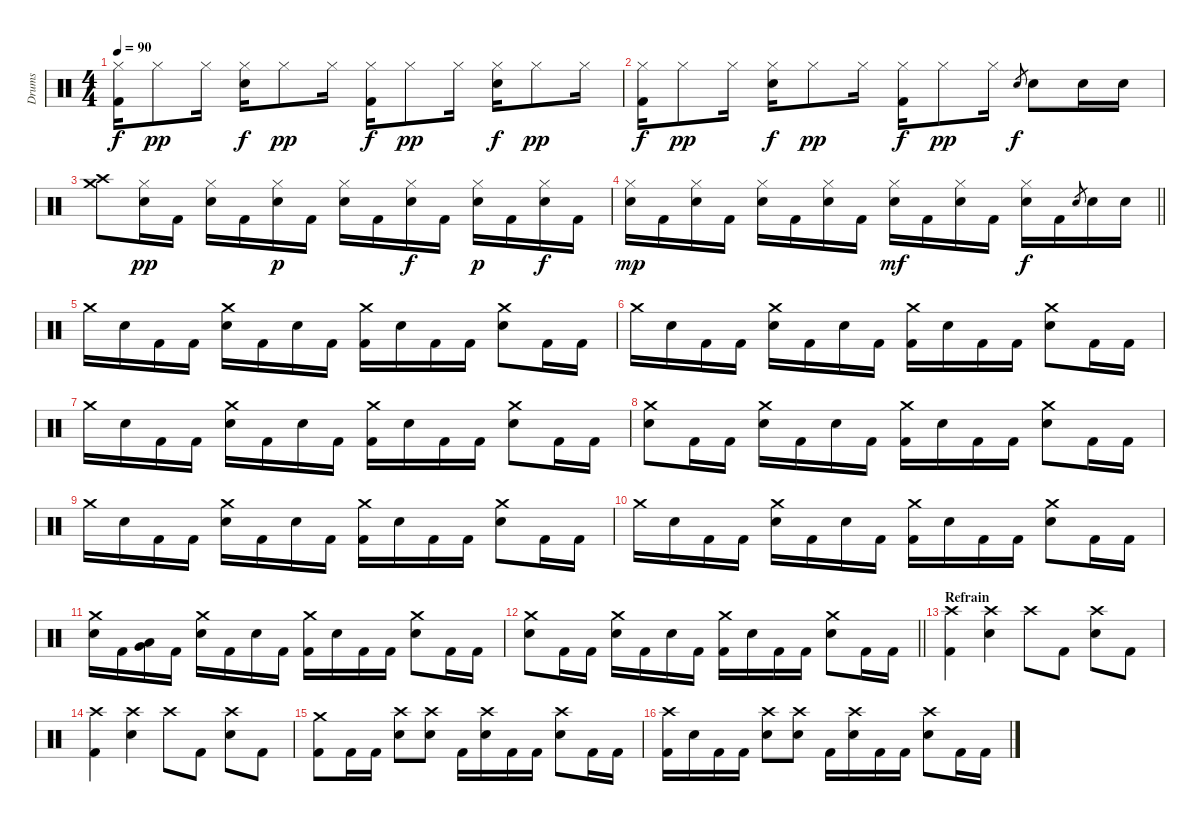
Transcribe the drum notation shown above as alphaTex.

\track ("Drums" "Drums") {instrument percussion}
\staff {score}
\articulation defaults
\ts (4 4)
\tempo 90
\clef neutral
\ks c
("Hi-Hat (closed)" "Kick (hit) 2").16{dy f} "Hi-Hat (closed)".8{dy pp} "Hi-Hat (closed)".16 ("Snare (hit) 2" "Hi-Hat (closed)").16{dy f} "Hi-Hat (closed)".8{dy pp} "Hi-Hat (closed)".16 ("Hi-Hat (closed)" "Kick (hit) 2").16{dy f} "Hi-Hat (closed)".8{dy pp} "Hi-Hat (closed)".16 ("Snare (hit) 2" "Hi-Hat (closed)").16{dy f} "Hi-Hat (closed)".8{dy pp} "Hi-Hat (closed)".16 |
("Hi-Hat (closed)" "Kick (hit) 2").16{dy f} "Hi-Hat (closed)".8{dy pp} "Hi-Hat (closed)".16 ("Snare (hit) 2" "Hi-Hat (closed)").16{dy f} "Hi-Hat (closed)".8{dy pp} "Hi-Hat (closed)".16 ("Hi-Hat (closed)" "Kick (hit) 2").16{dy f} "Hi-Hat (closed)".8{dy pp} "Hi-Hat (closed)".16 "Snare (hit) 2".8{gr dy f} "Snare (hit) 2".8 "Snare (hit) 2".16 "Snare (hit) 2".16 |
("Crash high (hit)" "Crash medium (hit)").8 ("Snare (hit) 2" "Hi-Hat (closed)").16{dy pp} "Kick (hit) 2".16 ("Snare (hit) 2" "Hi-Hat (closed)").16 "Kick (hit) 2".16 ("Snare (hit) 2" "Hi-Hat (closed)").16{dy p} "Kick (hit) 2".16 ("Snare (hit) 2" "Hi-Hat (closed)").16 "Kick (hit) 2".16 ("Snare (hit) 2" "Hi-Hat (closed)").16{dy f} "Kick (hit) 2".16 ("Snare (hit) 2" "Hi-Hat (closed)").16{dy p} "Kick (hit) 2".16 ("Snare (hit) 2" "Hi-Hat (closed)").16{dy f} "Kick (hit) 2".16 |
\barLineRight lightlight
("Snare (hit) 2" "Hi-Hat (closed)").16{dy mp} "Kick (hit) 2".16 ("Snare (hit) 2" "Hi-Hat (closed)").16 "Kick (hit) 2".16 ("Snare (hit) 2" "Hi-Hat (closed)").16 "Kick (hit) 2".16 ("Snare (hit) 2" "Hi-Hat (closed)").16 "Kick (hit) 2".16 ("Snare (hit) 2" "Hi-Hat (closed)").16{dy mf} "Kick (hit) 2".16 ("Snare (hit) 2" "Hi-Hat (closed)").16 "Kick (hit) 2".16 ("Snare (hit) 2" "Hi-Hat (closed)").16{dy f} "Kick (hit) 2".16 "Snare (hit) 2".8{gr} "Snare (hit) 2".16 "Snare (hit) 2".16 |
\section ("" "")
"Crash medium (hit)".16 "Snare (hit) 2".16 "Kick (hit) 2".16 "Kick (hit) 2".16 ("Snare (hit) 2" "Crash medium (hit)").16 "Kick (hit) 2".16 "Snare (hit) 2".16 "Kick (hit) 2".16 ("Crash medium (hit)" "Kick (hit) 2").16 "Snare (hit) 2".16 "Kick (hit) 2".16 "Kick (hit) 2".16 ("Snare (hit) 2" "Crash medium (hit)").8 "Kick (hit) 2".16 "Kick (hit) 2".16 |
"Crash medium (hit)".16 "Snare (hit) 2".16 "Kick (hit) 2".16 "Kick (hit) 2".16 ("Snare (hit) 2" "Crash medium (hit)").16 "Kick (hit) 2".16 "Snare (hit) 2".16 "Kick (hit) 2".16 ("Crash medium (hit)" "Kick (hit) 2").16 "Snare (hit) 2".16 "Kick (hit) 2".16 "Kick (hit) 2".16 ("Snare (hit) 2" "Crash medium (hit)").8 "Kick (hit) 2".16 "Kick (hit) 2".16 |
"Crash medium (hit)".16 "Snare (hit) 2".16 "Kick (hit) 2".16 "Kick (hit) 2".16 ("Snare (hit) 2" "Crash medium (hit)").16 "Kick (hit) 2".16 "Snare (hit) 2".16 "Kick (hit) 2".16 ("Crash medium (hit)" "Kick (hit) 2").16 "Snare (hit) 2".16 "Kick (hit) 2".16 "Kick (hit) 2".16 ("Snare (hit) 2" "Crash medium (hit)").8 "Kick (hit) 2".16 "Kick (hit) 2".16 |
("Snare (hit) 2" "Crash medium (hit)").8 "Kick (hit) 2".16 "Kick (hit) 2".16 ("Snare (hit) 2" "Crash medium (hit)").16 "Kick (hit) 2".16 "Snare (hit) 2".16 "Kick (hit) 2".16 ("Crash medium (hit)" "Kick (hit) 2").16 "Snare (hit) 2".16 "Kick (hit) 2".16 "Kick (hit) 2".16 ("Snare (hit) 2" "Crash medium (hit)").8 "Kick (hit) 2".16 "Kick (hit) 2".16 |
"Crash medium (hit)".16 "Snare (hit) 2".16 "Kick (hit) 2".16 "Kick (hit) 2".16 ("Snare (hit) 2" "Crash medium (hit)").16 "Kick (hit) 2".16 "Snare (hit) 2".16 "Kick (hit) 2".16 ("Crash medium (hit)" "Kick (hit) 2").16 "Snare (hit) 2".16 "Kick (hit) 2".16 "Kick (hit) 2".16 ("Snare (hit) 2" "Crash medium (hit)").8 "Kick (hit) 2".16 "Kick (hit) 2".16 |
"Crash medium (hit)".16 "Snare (hit) 2".16 "Kick (hit) 2".16 "Kick (hit) 2".16 ("Snare (hit) 2" "Crash medium (hit)").16 "Kick (hit) 2".16 "Snare (hit) 2".16 "Kick (hit) 2".16 ("Crash medium (hit)" "Kick (hit) 2").16 "Snare (hit) 2".16 "Kick (hit) 2".16 "Kick (hit) 2".16 ("Snare (hit) 2" "Crash medium (hit)").8 "Kick (hit) 2".16 "Kick (hit) 2".16 |
("Snare (hit) 2" "Crash medium (hit)").16 "Kick (hit) 2".16 ("Low Tom (hit)" "Very Low Tom (hit)").16 "Kick (hit) 2".16 ("Snare (hit) 2" "Crash medium (hit)").16 "Kick (hit) 2".16 "Snare (hit) 2".16 "Kick (hit) 2".16 ("Crash medium (hit)" "Kick (hit) 2").16 "Snare (hit) 2".16 "Kick (hit) 2".16 "Kick (hit) 2".16 ("Snare (hit) 2" "Crash medium (hit)").8 "Kick (hit) 2".16 "Kick (hit) 2".16 |
\barLineRight lightlight
("Snare (hit) 2" "Crash medium (hit)").8 "Kick (hit) 2".16 "Kick (hit) 2".16 ("Snare (hit) 2" "Crash medium (hit)").16 "Kick (hit) 2".16 "Snare (hit) 2".16 "Kick (hit) 2".16 ("Crash medium (hit)" "Kick (hit) 2").16 "Snare (hit) 2".16 "Kick (hit) 2".16 "Kick (hit) 2".16 ("Snare (hit) 2" "Crash medium (hit)").8 "Kick (hit) 2".16 "Kick (hit) 2".16 |
\section ("" "Refrain")
("Crash high (hit)" "Kick (hit) 2").4 ("Snare (hit) 2" "Crash high (hit)").4 "Crash high (hit)".8 "Kick (hit) 2".8 ("Snare (hit) 2" "Crash high (hit)").8 "Kick (hit) 2".8 |
("Crash high (hit)" "Kick (hit) 2").4 ("Snare (hit) 2" "Crash high (hit)").4 "Crash high (hit)".8 "Kick (hit) 2".8 ("Snare (hit) 2" "Crash high (hit)").8 "Kick (hit) 2".8 |
("Crash medium (hit)" "Kick (hit) 2").8 "Kick (hit) 2".16 "Kick (hit) 2".16 ("Snare (hit) 2" "Crash high (hit)").8 ("Snare (hit) 2" "Crash high (hit)").8 "Kick (hit) 2".16 ("Snare (hit) 2" "Crash high (hit)").16 "Kick (hit) 2".16 "Kick (hit) 2".16 ("Snare (hit) 2" "Crash high (hit)").8 "Kick (hit) 2".16 "Kick (hit) 2".16 |
("Crash high (hit)" "Kick (hit) 2").16 "Snare (hit) 2".16 "Kick (hit) 2".16 "Kick (hit) 2".16 ("Snare (hit) 2" "Crash high (hit)").8 ("Snare (hit) 2" "Crash high (hit)").8 "Kick (hit) 2".16 ("Snare (hit) 2" "Crash high (hit)").16 "Kick (hit) 2".16 "Kick (hit) 2".16 ("Snare (hit) 2" "Crash high (hit)").8 "Kick (hit) 2".16 "Kick (hit) 2".16
